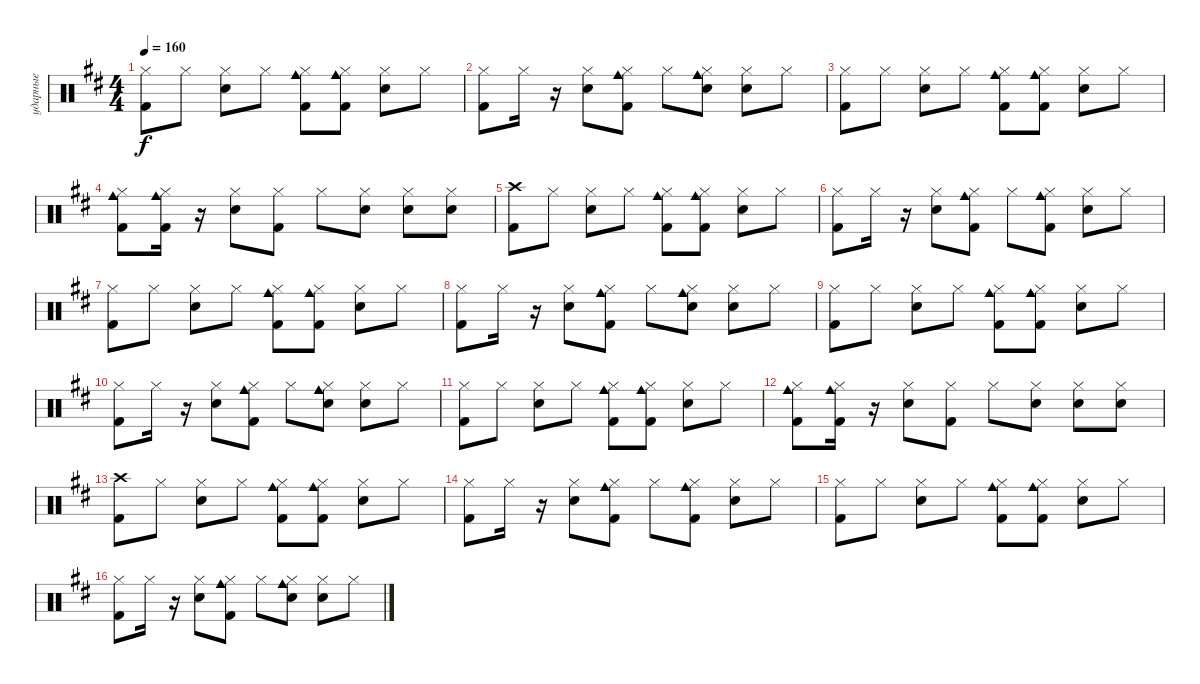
\track ("ударные" "ударные") {instrument percussion}
\staff {score}
\articulation defaults
\ts (4 4)
\tempo 160
\clef neutral
\ks bminor
("Hi-Hat (closed)" "Kick (hit) 2").8{dy f} "Hi-Hat (closed)".8 ("Hi-Hat (closed)" "Snare (hit) 2").8 "Hi-Hat (closed)".8 ("Hi-Hat (closed)" "Cowbell medium (hit)" "Kick (hit) 2").8 ("Hi-Hat (closed)" "Cowbell medium (hit)" "Kick (hit) 2").8 ("Hi-Hat (closed)" "Snare (hit) 2").8 "Hi-Hat (closed)".8 |
("Hi-Hat (closed)" "Kick (hit) 2").8 "Hi-Hat (closed)".16 r.16 ("Hi-Hat (closed)" "Snare (hit) 2").8 ("Hi-Hat (closed)" "Kick (hit) 2" "Cowbell medium (hit)").8 "Hi-Hat (closed)".8 ("Hi-Hat (closed)" "Hand Clap (hit)" "Cowbell medium (hit)").8 ("Hi-Hat (closed)" "Snare (hit) 2").8 "Hi-Hat (closed)".8 |
("Hi-Hat (closed)" "Kick (hit) 2").8 "Hi-Hat (closed)".8 ("Hi-Hat (closed)" "Snare (hit) 2").8 "Hi-Hat (closed)".8 ("Hi-Hat (closed)" "Cowbell medium (hit)" "Kick (hit) 2").8 ("Hi-Hat (closed)" "Cowbell medium (hit)" "Kick (hit) 2").8 ("Hi-Hat (closed)" "Snare (hit) 2").8 "Hi-Hat (closed)".8 |
("Cowbell medium (hit)" "Hi-Hat (closed)" "Kick (hit) 2").8 ("Cowbell medium (hit)" "Kick (hit) 2" "Hi-Hat (closed)").16 r.16 ("Hi-Hat (closed)" "Snare (hit) 2").8 ("Hi-Hat (closed)" "Kick (hit) 2").8 "Hi-Hat (closed)".8 ("Hi-Hat (closed)" "Snare (hit) 2").8 ("Hi-Hat (closed)" "Snare (hit) 2").8 ("Snare (hit) 2" "Hi-Hat (closed)").8 |
("Crash high (hit)" "Kick (hit) 2").8 "Hi-Hat (closed)".8 ("Hi-Hat (closed)" "Snare (hit) 2").8 "Hi-Hat (closed)".8 ("Hi-Hat (closed)" "Cowbell medium (hit)" "Kick (hit) 2").8 ("Hi-Hat (closed)" "Cowbell medium (hit)" "Kick (hit) 2").8 ("Hi-Hat (closed)" "Snare (hit) 2").8 "Hi-Hat (closed)".8 |
("Hi-Hat (closed)" "Kick (hit) 2").8 "Hi-Hat (closed)".16 r.16 ("Hi-Hat (closed)" "Snare (hit) 2").8 ("Hi-Hat (closed)" "Kick (hit) 2" "Cowbell medium (hit)").8 "Hi-Hat (closed)".8 ("Hi-Hat (closed)" "Kick (hit) 2" "Cowbell medium (hit)").8 ("Hi-Hat (closed)" "Snare (hit) 2").8 "Hi-Hat (closed)".8 |
("Hi-Hat (closed)" "Kick (hit) 2").8 "Hi-Hat (closed)".8 ("Hi-Hat (closed)" "Snare (hit) 2").8 "Hi-Hat (closed)".8 ("Hi-Hat (closed)" "Cowbell medium (hit)" "Kick (hit) 2").8 ("Hi-Hat (closed)" "Cowbell medium (hit)" "Kick (hit) 2").8 ("Hi-Hat (closed)" "Snare (hit) 2").8 "Hi-Hat (closed)".8 |
("Hi-Hat (closed)" "Kick (hit) 2").8 "Hi-Hat (closed)".16 r.16 ("Hi-Hat (closed)" "Snare (hit) 2").8 ("Hi-Hat (closed)" "Kick (hit) 2" "Cowbell medium (hit)").8 "Hi-Hat (closed)".8 ("Hi-Hat (closed)" "Hand Clap (hit)" "Cowbell medium (hit)").8 ("Hi-Hat (closed)" "Snare (hit) 2").8 "Hi-Hat (closed)".8 |
("Hi-Hat (closed)" "Kick (hit) 2").8 "Hi-Hat (closed)".8 ("Hi-Hat (closed)" "Snare (hit) 2").8 "Hi-Hat (closed)".8 ("Hi-Hat (closed)" "Cowbell medium (hit)" "Kick (hit) 2").8 ("Hi-Hat (closed)" "Cowbell medium (hit)" "Kick (hit) 2").8 ("Hi-Hat (closed)" "Snare (hit) 2").8 "Hi-Hat (closed)".8 |
("Hi-Hat (closed)" "Kick (hit) 2").8 "Hi-Hat (closed)".16 r.16 ("Hi-Hat (closed)" "Snare (hit) 2").8 ("Hi-Hat (closed)" "Kick (hit) 2" "Cowbell medium (hit)").8 "Hi-Hat (closed)".8 ("Hi-Hat (closed)" "Hand Clap (hit)" "Cowbell medium (hit)").8 ("Hi-Hat (closed)" "Snare (hit) 2").8 "Hi-Hat (closed)".8 |
("Hi-Hat (closed)" "Kick (hit) 2").8 "Hi-Hat (closed)".8 ("Hi-Hat (closed)" "Snare (hit) 2").8 "Hi-Hat (closed)".8 ("Hi-Hat (closed)" "Cowbell medium (hit)" "Kick (hit) 2").8 ("Hi-Hat (closed)" "Cowbell medium (hit)" "Kick (hit) 2").8 ("Hi-Hat (closed)" "Snare (hit) 2").8 "Hi-Hat (closed)".8 |
("Cowbell medium (hit)" "Hi-Hat (closed)" "Kick (hit) 2").8 ("Cowbell medium (hit)" "Kick (hit) 2" "Hi-Hat (closed)").16 r.16 ("Hi-Hat (closed)" "Snare (hit) 2").8 ("Hi-Hat (closed)" "Kick (hit) 2").8 "Hi-Hat (closed)".8 ("Hi-Hat (closed)" "Snare (hit) 2").8 ("Hi-Hat (closed)" "Snare (hit) 2").8 ("Snare (hit) 2" "Hi-Hat (closed)").8 |
("Crash high (hit)" "Kick (hit) 2").8 "Hi-Hat (closed)".8 ("Hi-Hat (closed)" "Snare (hit) 2").8 "Hi-Hat (closed)".8 ("Hi-Hat (closed)" "Cowbell medium (hit)" "Kick (hit) 2").8 ("Hi-Hat (closed)" "Cowbell medium (hit)" "Kick (hit) 2").8 ("Hi-Hat (closed)" "Snare (hit) 2").8 "Hi-Hat (closed)".8 |
("Hi-Hat (closed)" "Kick (hit) 2").8 "Hi-Hat (closed)".16 r.16 ("Hi-Hat (closed)" "Snare (hit) 2").8 ("Hi-Hat (closed)" "Kick (hit) 2" "Cowbell medium (hit)").8 "Hi-Hat (closed)".8 ("Hi-Hat (closed)" "Kick (hit) 2" "Cowbell medium (hit)").8 ("Hi-Hat (closed)" "Snare (hit) 2").8 "Hi-Hat (closed)".8 |
("Hi-Hat (closed)" "Kick (hit) 2").8 "Hi-Hat (closed)".8 ("Hi-Hat (closed)" "Snare (hit) 2").8 "Hi-Hat (closed)".8 ("Hi-Hat (closed)" "Cowbell medium (hit)" "Kick (hit) 2").8 ("Hi-Hat (closed)" "Cowbell medium (hit)" "Kick (hit) 2").8 ("Hi-Hat (closed)" "Snare (hit) 2").8 "Hi-Hat (closed)".8 |
("Hi-Hat (closed)" "Kick (hit) 2").8 "Hi-Hat (closed)".16 r.16 ("Hi-Hat (closed)" "Snare (hit) 2").8 ("Hi-Hat (closed)" "Kick (hit) 2" "Cowbell medium (hit)").8 "Hi-Hat (closed)".8 ("Hi-Hat (closed)" "Hand Clap (hit)" "Cowbell medium (hit)").8 ("Hi-Hat (closed)" "Snare (hit) 2").8 "Hi-Hat (closed)".8
